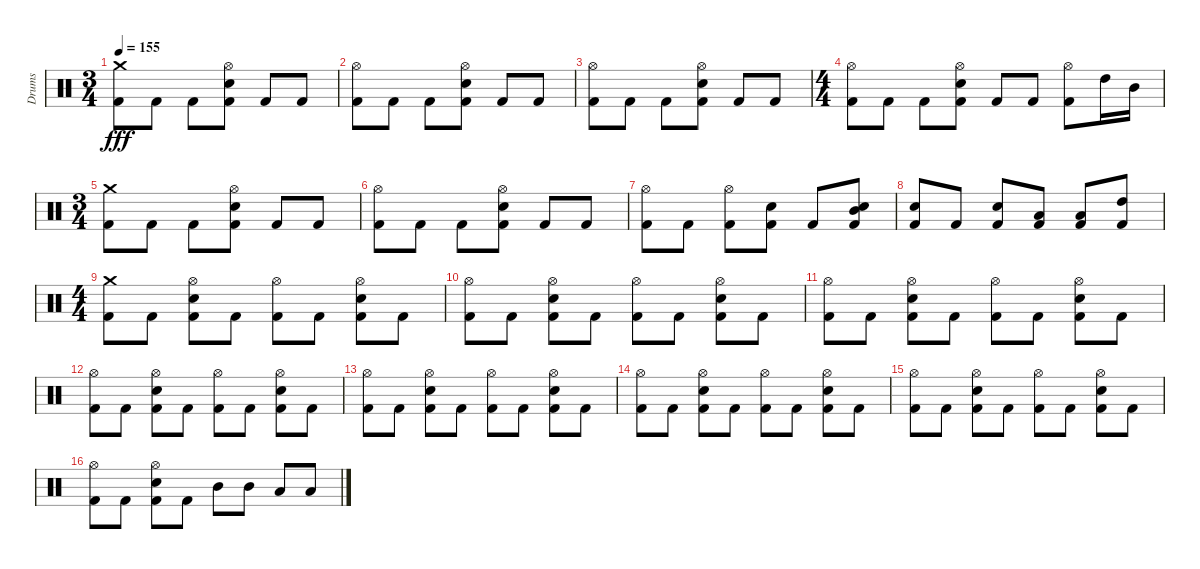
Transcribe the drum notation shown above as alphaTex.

\track ("Drums" "Drums") {instrument percussion}
\staff {score}
\articulation defaults
\ts (3 4)
\tempo 155
\clef neutral
\ks c
("Crash medium (hit)" "Kick (hit) 2").8{dy fff} "Kick (hit) 2".8 "Kick (hit) 2".8 ("Electric Snare (hit)" "Hi-Hat (open)" "Kick (hit) 2").8 "Kick (hit) 2".8 "Kick (hit) 2".8 |
("Hi-Hat (open)" "Kick (hit) 2").8 "Kick (hit) 2".8 "Kick (hit) 2".8 ("Electric Snare (hit)" "Hi-Hat (open)" "Kick (hit) 2").8 "Kick (hit) 2".8 "Kick (hit) 2".8 |
("Hi-Hat (open)" "Kick (hit) 2").8 "Kick (hit) 2".8 "Kick (hit) 2".8 ("Electric Snare (hit)" "Hi-Hat (open)" "Kick (hit) 2").8 "Kick (hit) 2".8 "Kick (hit) 2".8 |
\ts (4 4)
("Hi-Hat (open)" "Kick (hit) 2").8 "Kick (hit) 2".8 "Kick (hit) 2".8 ("Electric Snare (hit)" "Hi-Hat (open)" "Kick (hit) 2").8 "Kick (hit) 2".8 "Kick (hit) 2".8 ("Hi-Hat (open)" "Kick (hit) 2").8 "High Tom (hit)".16 "Mid Tom (hit)".16 |
\ts (3 4)
("Crash medium (hit)" "Kick (hit) 2").8 "Kick (hit) 2".8 "Kick (hit) 2".8 ("Electric Snare (hit)" "Hi-Hat (open)" "Kick (hit) 2").8 "Kick (hit) 2".8 "Kick (hit) 2".8 |
("Hi-Hat (open)" "Kick (hit) 2").8 "Kick (hit) 2".8 "Kick (hit) 2".8 ("Electric Snare (hit)" "Hi-Hat (open)" "Kick (hit) 2").8 "Kick (hit) 2".8 "Kick (hit) 2".8 |
("Hi-Hat (open)" "Kick (hit) 2").8 "Kick (hit) 2".8 ("Hi-Hat (open)" "Kick (hit) 2").8 ("Electric Snare (hit)" "Kick (hit) 2").8 "Kick (hit) 2".8 ("Electric Snare (hit)" "Mid Tom (hit)" "Kick (hit) 2").8 |
("Electric Snare (hit)" "Kick (hit) 2").8 "Kick (hit) 2".8 ("Electric Snare (hit)" "Kick (hit) 2").8 ("Low Floor Tom (hit)" "Kick (hit) 2").8 ("Low Tom (hit)" "Kick (hit) 2").8 ("High Tom (hit)" "Kick (hit) 2").8 |
\ts (4 4)
("Crash medium (hit)" "Kick (hit) 2").8 "Kick (hit) 2".8 ("Electric Snare (hit)" "Hi-Hat (open)" "Kick (hit) 2").8 "Kick (hit) 2".8 ("Hi-Hat (open)" "Kick (hit) 2").8 "Kick (hit) 2".8 ("Electric Snare (hit)" "Hi-Hat (open)" "Kick (hit) 2").8 "Kick (hit) 2".8 |
("Hi-Hat (open)" "Kick (hit) 2").8 "Kick (hit) 2".8 ("Electric Snare (hit)" "Hi-Hat (open)" "Kick (hit) 2").8 "Kick (hit) 2".8 ("Hi-Hat (open)" "Kick (hit) 2").8 "Kick (hit) 2".8 ("Electric Snare (hit)" "Hi-Hat (open)" "Kick (hit) 2").8 "Kick (hit) 2".8 |
("Hi-Hat (open)" "Kick (hit) 2").8 "Kick (hit) 2".8 ("Electric Snare (hit)" "Hi-Hat (open)" "Kick (hit) 2").8 "Kick (hit) 2".8 ("Hi-Hat (open)" "Kick (hit) 2").8 "Kick (hit) 2".8 ("Electric Snare (hit)" "Hi-Hat (open)" "Kick (hit) 2").8 "Kick (hit) 2".8 |
("Hi-Hat (open)" "Kick (hit) 2").8 "Kick (hit) 2".8 ("Electric Snare (hit)" "Hi-Hat (open)" "Kick (hit) 2").8 "Kick (hit) 2".8 ("Hi-Hat (open)" "Kick (hit) 2").8 "Kick (hit) 2".8 ("Electric Snare (hit)" "Hi-Hat (open)" "Kick (hit) 2").8 "Kick (hit) 2".8 |
("Hi-Hat (open)" "Kick (hit) 2").8 "Kick (hit) 2".8 ("Electric Snare (hit)" "Hi-Hat (open)" "Kick (hit) 2").8 "Kick (hit) 2".8 ("Hi-Hat (open)" "Kick (hit) 2").8 "Kick (hit) 2".8 ("Electric Snare (hit)" "Hi-Hat (open)" "Kick (hit) 2").8 "Kick (hit) 2".8 |
("Hi-Hat (open)" "Kick (hit) 2").8 "Kick (hit) 2".8 ("Electric Snare (hit)" "Hi-Hat (open)" "Kick (hit) 2").8 "Kick (hit) 2".8 ("Hi-Hat (open)" "Kick (hit) 2").8 "Kick (hit) 2".8 ("Electric Snare (hit)" "Hi-Hat (open)" "Kick (hit) 2").8 "Kick (hit) 2".8 |
("Hi-Hat (open)" "Kick (hit) 2").8 "Kick (hit) 2".8 ("Electric Snare (hit)" "Hi-Hat (open)" "Kick (hit) 2").8 "Kick (hit) 2".8 ("Hi-Hat (open)" "Kick (hit) 2").8 "Kick (hit) 2".8 ("Electric Snare (hit)" "Hi-Hat (open)" "Kick (hit) 2").8 "Kick (hit) 2".8 |
("Hi-Hat (open)" "Kick (hit) 2").8 "Kick (hit) 2".8 ("Electric Snare (hit)" "Hi-Hat (open)" "Kick (hit) 2").8 "Kick (hit) 2".8 "Mid Tom (hit)".8 "Mid Tom (hit)".8 "Low Tom (hit)".8 "Low Floor Tom (hit)".8
